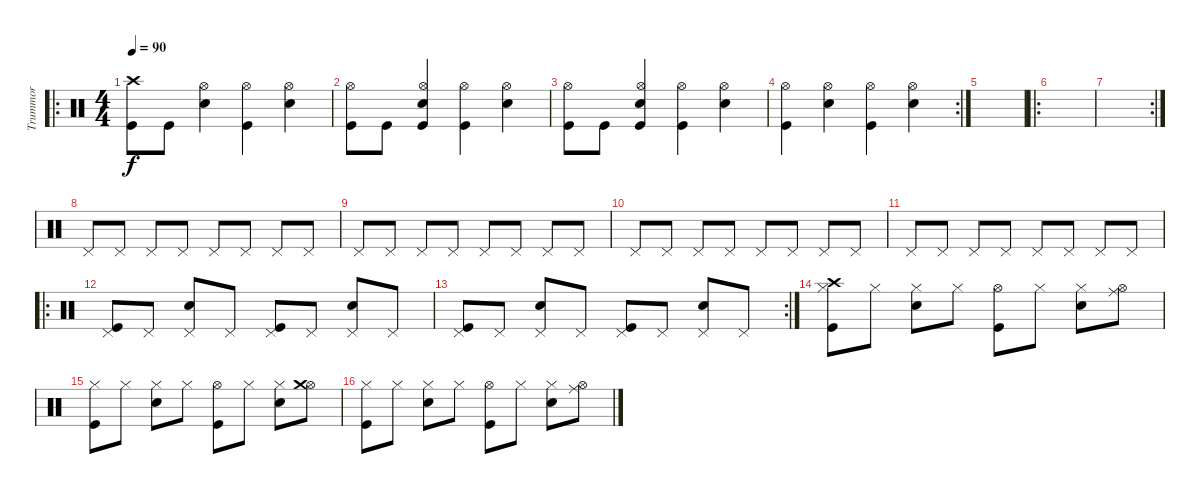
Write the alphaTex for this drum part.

\track ("Trummor" "Trummor") {instrument percussion}
\staff {score}
\articulation defaults
\ro
\ts (4 4)
\tempo 90
\clef neutral
\ks c
("Crash high (hit)" "Kick (hit)").8{dy f} "Kick (hit)".8 ("Hi-Hat (open)" "Snare (hit) 2").4 ("Hi-Hat (open)" "Kick (hit)").4 ("Hi-Hat (open)" "Snare (hit) 2").4 |
("Hi-Hat (open)" "Kick (hit)").8 "Kick (hit)".8 ("Hi-Hat (open)" "Snare (hit) 2" "Kick (hit)").4 ("Hi-Hat (open)" "Kick (hit)").4 ("Hi-Hat (open)" "Snare (hit) 2").4 |
("Hi-Hat (open)" "Kick (hit)").8 "Kick (hit)".8 ("Hi-Hat (open)" "Snare (hit) 2" "Kick (hit)").4 ("Hi-Hat (open)" "Kick (hit)").4 ("Hi-Hat (open)" "Snare (hit) 2").4 |
\rc 2
("Hi-Hat (open)" "Kick (hit)").4 ("Hi-Hat (open)" "Snare (hit) 2").4 ("Hi-Hat (open)" "Kick (hit)").4 ("Hi-Hat (open)" "Snare (hit) 2").4 |
|
\ro
|
\rc 2
|
"Pedal Hi-Hat (hit)".8 "Pedal Hi-Hat (hit)".8 "Pedal Hi-Hat (hit)".8 "Pedal Hi-Hat (hit)".8 "Pedal Hi-Hat (hit)".8 "Pedal Hi-Hat (hit)".8 "Pedal Hi-Hat (hit)".8 "Pedal Hi-Hat (hit)".8 |
"Pedal Hi-Hat (hit)".8 "Pedal Hi-Hat (hit)".8 "Pedal Hi-Hat (hit)".8 "Pedal Hi-Hat (hit)".8 "Pedal Hi-Hat (hit)".8 "Pedal Hi-Hat (hit)".8 "Pedal Hi-Hat (hit)".8 "Pedal Hi-Hat (hit)".8 |
"Pedal Hi-Hat (hit)".8 "Pedal Hi-Hat (hit)".8 "Pedal Hi-Hat (hit)".8 "Pedal Hi-Hat (hit)".8 "Pedal Hi-Hat (hit)".8 "Pedal Hi-Hat (hit)".8 "Pedal Hi-Hat (hit)".8 "Pedal Hi-Hat (hit)".8 |
"Pedal Hi-Hat (hit)".8 "Pedal Hi-Hat (hit)".8 "Pedal Hi-Hat (hit)".8 "Pedal Hi-Hat (hit)".8 "Pedal Hi-Hat (hit)".8 "Pedal Hi-Hat (hit)".8 "Pedal Hi-Hat (hit)".8 "Pedal Hi-Hat (hit)".8 |
\ro
("Pedal Hi-Hat (hit)" "Kick (hit)").8 "Pedal Hi-Hat (hit)".8 ("Pedal Hi-Hat (hit)" "Snare (hit) 2").8 "Pedal Hi-Hat (hit)".8 ("Pedal Hi-Hat (hit)" "Kick (hit)").8 "Pedal Hi-Hat (hit)".8 ("Pedal Hi-Hat (hit)" "Snare (hit) 2").8 "Pedal Hi-Hat (hit)".8 |
\rc 2
("Pedal Hi-Hat (hit)" "Kick (hit)").8 "Pedal Hi-Hat (hit)".8 ("Pedal Hi-Hat (hit)" "Snare (hit) 2").8 "Pedal Hi-Hat (hit)".8 ("Pedal Hi-Hat (hit)" "Kick (hit)").8 "Pedal Hi-Hat (hit)".8 ("Pedal Hi-Hat (hit)" "Snare (hit) 2").8 "Pedal Hi-Hat (hit)".8 |
("Hi-Hat (closed)" "Kick (hit)" "Crash high (hit)").8 "Hi-Hat (closed)".8 ("Hi-Hat (closed)" "Snare (hit) 2").8 "Hi-Hat (closed)".8 ("Hi-Hat (open)" "Kick (hit)").8 "Hi-Hat (closed)".8 ("Hi-Hat (closed)" "Snare (hit) 2").8 ("Hi-Hat (open)" "Ride (middle)").8 |
("Hi-Hat (closed)" "Kick (hit)").8 "Hi-Hat (closed)".8 ("Hi-Hat (closed)" "Snare (hit) 2").8 "Hi-Hat (closed)".8 ("Hi-Hat (open)" "Kick (hit)").8 "Hi-Hat (closed)".8 ("Hi-Hat (closed)" "Snare (hit) 2").8 ("Hi-Hat (open)" "Crash medium (hit)").8 |
("Hi-Hat (closed)" "Kick (hit)").8 "Hi-Hat (closed)".8 ("Hi-Hat (closed)" "Snare (hit) 2").8 "Hi-Hat (closed)".8 ("Hi-Hat (open)" "Kick (hit)").8 "Hi-Hat (closed)".8 ("Hi-Hat (closed)" "Snare (hit) 2").8 ("Hi-Hat (open)" "Ride (middle)").8
